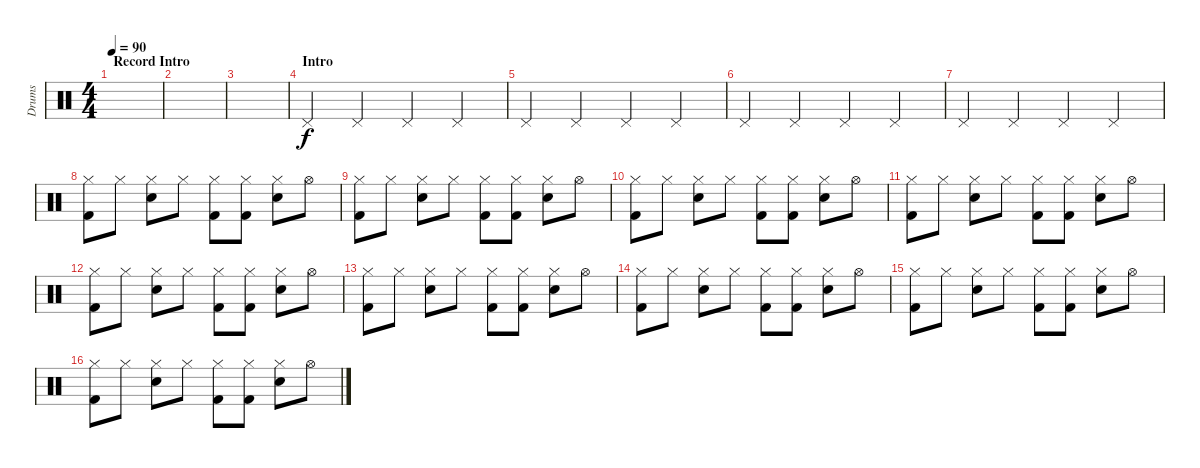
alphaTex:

\track ("Drums" "Drums") {instrument percussion}
\staff {score}
\articulation defaults
\ts (4 4)
\section ("" "Record Intro")
\tempo 90
\clef neutral
\ks c
|
|
|
\section ("" "Intro")
"Pedal Hi-Hat (hit)".4 "Pedal Hi-Hat (hit)".4 "Pedal Hi-Hat (hit)".4 "Pedal Hi-Hat (hit)".4 |
"Pedal Hi-Hat (hit)".4 "Pedal Hi-Hat (hit)".4 "Pedal Hi-Hat (hit)".4 "Pedal Hi-Hat (hit)".4 |
"Pedal Hi-Hat (hit)".4 "Pedal Hi-Hat (hit)".4 "Pedal Hi-Hat (hit)".4 "Pedal Hi-Hat (hit)".4 |
"Pedal Hi-Hat (hit)".4 "Pedal Hi-Hat (hit)".4 "Pedal Hi-Hat (hit)".4 "Pedal Hi-Hat (hit)".4 |
("Hi-Hat (closed)" "Kick (hit) 2").8 "Hi-Hat (closed)".8 ("Hi-Hat (closed)" "Electric Snare (hit)").8 "Hi-Hat (closed)".8 ("Hi-Hat (closed)" "Kick (hit) 2").8 ("Hi-Hat (closed)" "Kick (hit) 2").8 ("Hi-Hat (closed)" "Electric Snare (hit)").8 "Hi-Hat (open)".8 |
("Hi-Hat (closed)" "Kick (hit) 2").8 "Hi-Hat (closed)".8 ("Hi-Hat (closed)" "Electric Snare (hit)").8 "Hi-Hat (closed)".8 ("Hi-Hat (closed)" "Kick (hit) 2").8 ("Hi-Hat (closed)" "Kick (hit) 2").8 ("Hi-Hat (closed)" "Electric Snare (hit)").8 "Hi-Hat (open)".8 |
("Hi-Hat (closed)" "Kick (hit) 2").8 "Hi-Hat (closed)".8 ("Hi-Hat (closed)" "Electric Snare (hit)").8 "Hi-Hat (closed)".8 ("Hi-Hat (closed)" "Kick (hit) 2").8 ("Hi-Hat (closed)" "Kick (hit) 2").8 ("Hi-Hat (closed)" "Electric Snare (hit)").8 "Hi-Hat (open)".8 |
("Hi-Hat (closed)" "Kick (hit) 2").8 "Hi-Hat (closed)".8 ("Hi-Hat (closed)" "Electric Snare (hit)").8 "Hi-Hat (closed)".8 ("Hi-Hat (closed)" "Kick (hit) 2").8 ("Hi-Hat (closed)" "Kick (hit) 2").8 ("Hi-Hat (closed)" "Electric Snare (hit)").8 "Hi-Hat (open)".8 |
("Hi-Hat (closed)" "Kick (hit) 2").8 "Hi-Hat (closed)".8 ("Hi-Hat (closed)" "Electric Snare (hit)").8 "Hi-Hat (closed)".8 ("Hi-Hat (closed)" "Kick (hit) 2").8 ("Hi-Hat (closed)" "Kick (hit) 2").8 ("Hi-Hat (closed)" "Electric Snare (hit)").8 "Hi-Hat (open)".8 |
("Hi-Hat (closed)" "Kick (hit) 2").8 "Hi-Hat (closed)".8 ("Hi-Hat (closed)" "Electric Snare (hit)").8 "Hi-Hat (closed)".8 ("Hi-Hat (closed)" "Kick (hit) 2").8 ("Hi-Hat (closed)" "Kick (hit) 2").8 ("Hi-Hat (closed)" "Electric Snare (hit)").8 "Hi-Hat (open)".8 |
("Hi-Hat (closed)" "Kick (hit) 2").8 "Hi-Hat (closed)".8 ("Hi-Hat (closed)" "Electric Snare (hit)").8 "Hi-Hat (closed)".8 ("Hi-Hat (closed)" "Kick (hit) 2").8 ("Hi-Hat (closed)" "Kick (hit) 2").8 ("Hi-Hat (closed)" "Electric Snare (hit)").8 "Hi-Hat (open)".8 |
("Hi-Hat (closed)" "Kick (hit) 2").8 "Hi-Hat (closed)".8 ("Hi-Hat (closed)" "Electric Snare (hit)").8 "Hi-Hat (closed)".8 ("Hi-Hat (closed)" "Kick (hit) 2").8 ("Hi-Hat (closed)" "Kick (hit) 2").8 ("Hi-Hat (closed)" "Electric Snare (hit)").8 "Hi-Hat (open)".8 |
("Hi-Hat (closed)" "Kick (hit) 2").8 "Hi-Hat (closed)".8 ("Hi-Hat (closed)" "Electric Snare (hit)").8 "Hi-Hat (closed)".8 ("Hi-Hat (closed)" "Kick (hit) 2").8 ("Hi-Hat (closed)" "Kick (hit) 2").8 ("Hi-Hat (closed)" "Electric Snare (hit)").8 "Hi-Hat (open)".8
